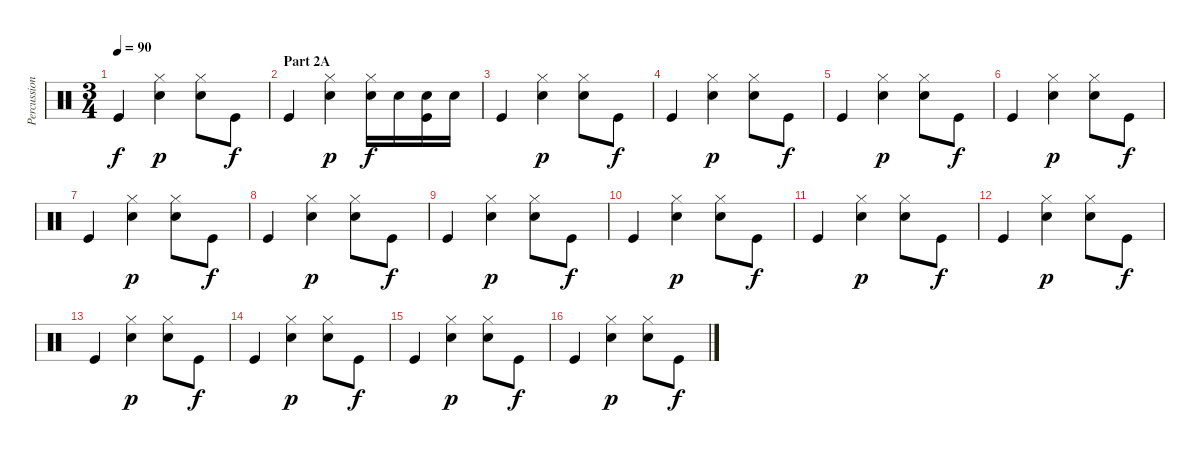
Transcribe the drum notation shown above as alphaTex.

\track ("Percussion" "Percussion") {instrument percussion}
\staff {score}
\articulation defaults
\ts (3 4)
\tempo 90
\clef neutral
\ks c "Kick (hit)".4{dy f}
("Hi-Hat (closed)" "Electric Snare (hit)").4{dy p} ("Hi-Hat (closed)" "Electric Snare (hit)").8 "Kick (hit)".8{dy f} |
\section ("" "Part 2A")
"Kick (hit)".4 ("Hi-Hat (closed)" "Electric Snare (hit)").4{dy p} ("Hi-Hat (closed)" "Electric Snare (hit)").16{dy f} "Electric Snare (hit)".16 ("Electric Snare (hit)" "Kick (hit)").16 "Electric Snare (hit)".16 |
"Kick (hit)".4 ("Hi-Hat (closed)" "Electric Snare (hit)").4{dy p} ("Hi-Hat (closed)" "Electric Snare (hit)").8 "Kick (hit)".8{dy f} |
"Kick (hit)".4 ("Hi-Hat (closed)" "Electric Snare (hit)").4{dy p} ("Hi-Hat (closed)" "Electric Snare (hit)").8 "Kick (hit)".8{dy f} |
"Kick (hit)".4 ("Hi-Hat (closed)" "Electric Snare (hit)").4{dy p} ("Hi-Hat (closed)" "Electric Snare (hit)").8 "Kick (hit)".8{dy f} |
"Kick (hit)".4 ("Hi-Hat (closed)" "Electric Snare (hit)").4{dy p} ("Hi-Hat (closed)" "Electric Snare (hit)").8 "Kick (hit)".8{dy f} |
"Kick (hit)".4 ("Hi-Hat (closed)" "Electric Snare (hit)").4{dy p} ("Hi-Hat (closed)" "Electric Snare (hit)").8 "Kick (hit)".8{dy f} |
"Kick (hit)".4 ("Hi-Hat (closed)" "Electric Snare (hit)").4{dy p} ("Hi-Hat (closed)" "Electric Snare (hit)").8 "Kick (hit)".8{dy f} |
"Kick (hit)".4 ("Hi-Hat (closed)" "Electric Snare (hit)").4{dy p} ("Hi-Hat (closed)" "Electric Snare (hit)").8 "Kick (hit)".8{dy f} |
"Kick (hit)".4 ("Hi-Hat (closed)" "Electric Snare (hit)").4{dy p} ("Hi-Hat (closed)" "Electric Snare (hit)").8 "Kick (hit)".8{dy f} |
"Kick (hit)".4 ("Hi-Hat (closed)" "Electric Snare (hit)").4{dy p} ("Hi-Hat (closed)" "Electric Snare (hit)").8 "Kick (hit)".8{dy f} |
"Kick (hit)".4 ("Hi-Hat (closed)" "Electric Snare (hit)").4{dy p} ("Hi-Hat (closed)" "Electric Snare (hit)").8 "Kick (hit)".8{dy f} |
"Kick (hit)".4 ("Hi-Hat (closed)" "Electric Snare (hit)").4{dy p} ("Hi-Hat (closed)" "Electric Snare (hit)").8 "Kick (hit)".8{dy f} |
"Kick (hit)".4 ("Hi-Hat (closed)" "Electric Snare (hit)").4{dy p} ("Hi-Hat (closed)" "Electric Snare (hit)").8 "Kick (hit)".8{dy f} |
"Kick (hit)".4 ("Hi-Hat (closed)" "Electric Snare (hit)").4{dy p} ("Hi-Hat (closed)" "Electric Snare (hit)").8 "Kick (hit)".8{dy f} |
"Kick (hit)".4 ("Hi-Hat (closed)" "Electric Snare (hit)").4{dy p} ("Hi-Hat (closed)" "Electric Snare (hit)").8 "Kick (hit)".8{dy f}
